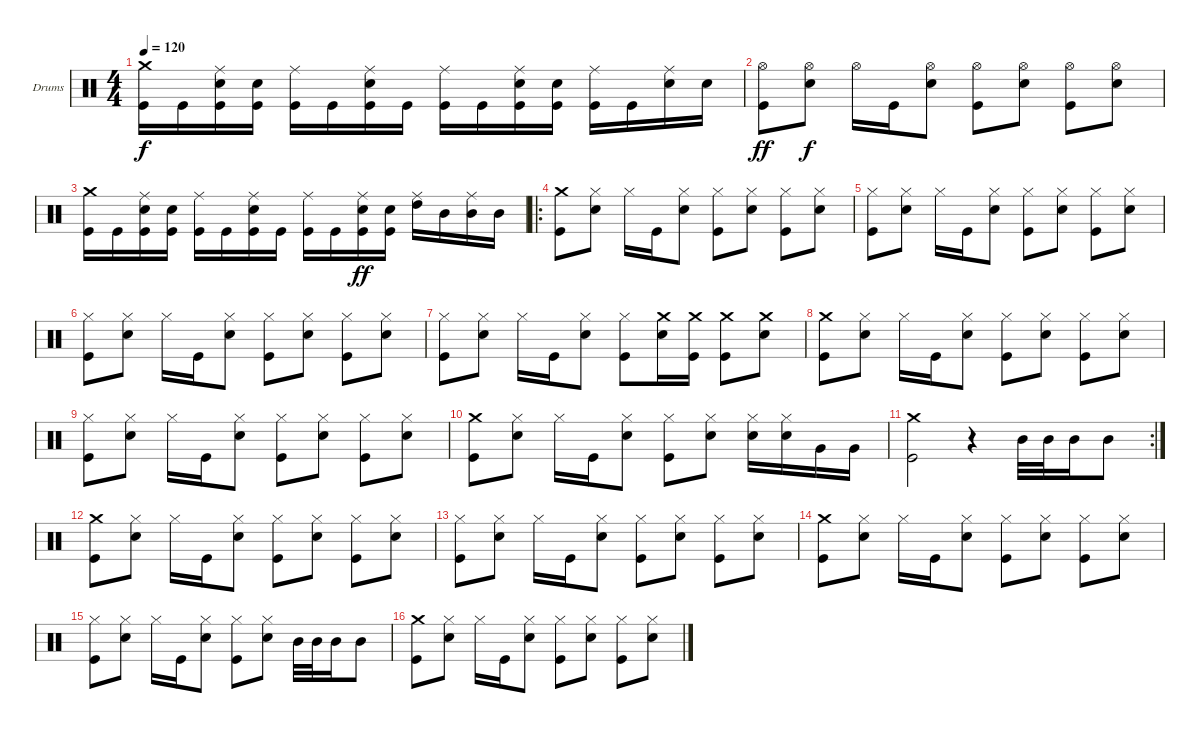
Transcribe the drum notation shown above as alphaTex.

\bracketExtendMode groupsimilarinstruments
\firstSystemTrackNameOrientation horizontal
\otherSystemsTrackNameOrientation horizontal
\track ("Drumkit" "Drums") {instrument percussion}
\staff {score}
\articulation defaults
\ts (4 4)
\tempo 120
\clef neutral
\ks c
("Crash medium (hit)" "Kick (hit)").16{dy f} "Kick (hit)".16 ("Ride (middle)" "Kick (hit)" "Snare (hit) 2").16 ("Kick (hit)" "Snare (hit) 2").16 ("Ride (middle)" "Kick (hit)").16 "Kick (hit)".16 ("Snare (hit) 2" "Ride (middle)" "Kick (hit)").16 "Kick (hit)".16 ("Ride (middle)" "Kick (hit)").16 "Kick (hit)".16 ("Snare (hit) 2" "Ride (middle)" "Kick (hit)").16 ("Kick (hit)" "Snare (hit) 2").16 ("Ride (middle)" "Kick (hit)").16 "Kick (hit)".16 ("Snare (hit) 2" "Ride (middle)").16 "Snare (hit) 2".16 |
("Kick (hit)" "Hi-Hat (open)").8{dy ff} ("Snare (hit) 2" "Hi-Hat (open)").8{dy f} "Hi-Hat (open)".16 "Kick (hit)".16 ("Snare (hit) 2" "Hi-Hat (open)").8 ("Kick (hit)" "Hi-Hat (open)").8 ("Snare (hit) 2" "Hi-Hat (open)").8 ("Kick (hit)" "Hi-Hat (open)").8 ("Snare (hit) 2" "Hi-Hat (open)").8 |
("Crash medium (hit)" "Kick (hit)").16 "Kick (hit)".16 ("Ride (middle)" "Kick (hit)" "Snare (hit) 2").16 ("Kick (hit)" "Snare (hit) 2").16 ("Ride (middle)" "Kick (hit)").16 "Kick (hit)".16 ("Snare (hit) 2" "Ride (middle)" "Kick (hit)").16 "Kick (hit)".16 ("Ride (middle)" "Kick (hit)").16 "Kick (hit)".16 ("Snare (hit) 2" "Ride (middle)" "Kick (hit)").16{dy ff} ("Kick (hit)" "Snare (hit) 2").16 ("Ride (middle)" "High Tom (hit)").16 "Mid Tom (hit)".16 ("Ride (middle)" "Mid Tom (hit)").16 "Mid Tom (hit)".16 |
\ro
("Kick (hit)" "Crash medium (hit)").8 ("Snare (hit) 2" "Hi-Hat (closed)").8 "Hi-Hat (closed)".16 "Kick (hit)".16 ("Snare (hit) 2" "Hi-Hat (closed)").8 ("Kick (hit)" "Hi-Hat (closed)").8 ("Snare (hit) 2" "Hi-Hat (closed)").8 ("Kick (hit)" "Hi-Hat (closed)").8 ("Snare (hit) 2" "Hi-Hat (closed)").8 |
("Kick (hit)" "Hi-Hat (closed)").8 ("Snare (hit) 2" "Hi-Hat (closed)").8 "Hi-Hat (closed)".16 "Kick (hit)".16 ("Snare (hit) 2" "Hi-Hat (closed)").8 ("Kick (hit)" "Hi-Hat (closed)").8 ("Snare (hit) 2" "Hi-Hat (closed)").8 ("Kick (hit)" "Hi-Hat (closed)").8 ("Snare (hit) 2" "Hi-Hat (closed)").8 |
("Kick (hit)" "Hi-Hat (closed)").8 ("Snare (hit) 2" "Hi-Hat (closed)").8 "Hi-Hat (closed)".16 "Kick (hit)".16 ("Snare (hit) 2" "Hi-Hat (closed)").8 ("Kick (hit)" "Hi-Hat (closed)").8 ("Snare (hit) 2" "Hi-Hat (closed)").8 ("Kick (hit)" "Hi-Hat (closed)").8 ("Snare (hit) 2" "Hi-Hat (closed)").8 |
("Kick (hit)" "Hi-Hat (closed)").8 ("Snare (hit) 2" "Hi-Hat (closed)").8 "Hi-Hat (closed)".16 "Kick (hit)".16 ("Snare (hit) 2" "Hi-Hat (closed)").8 ("Kick (hit)" "Hi-Hat (closed)").8 ("Snare (hit) 2" "Crash medium (hit)").16 ("Kick (hit)" "Crash medium (hit)").16 ("Kick (hit)" "Crash medium (hit)").8 ("Snare (hit) 2" "Crash medium (hit)").8 |
("Kick (hit)" "Crash medium (hit)").8 ("Snare (hit) 2" "Hi-Hat (closed)").8 "Hi-Hat (closed)".16 "Kick (hit)".16 ("Snare (hit) 2" "Hi-Hat (closed)").8 ("Kick (hit)" "Hi-Hat (closed)").8 ("Snare (hit) 2" "Hi-Hat (closed)").8 ("Kick (hit)" "Hi-Hat (closed)").8 ("Snare (hit) 2" "Hi-Hat (closed)").8 |
("Kick (hit)" "Hi-Hat (closed)").8 ("Snare (hit) 2" "Hi-Hat (closed)").8 "Hi-Hat (closed)".16 "Kick (hit)".16 ("Snare (hit) 2" "Hi-Hat (closed)").8 ("Kick (hit)" "Hi-Hat (closed)").8 ("Snare (hit) 2" "Hi-Hat (closed)").8 ("Kick (hit)" "Hi-Hat (closed)").8 ("Snare (hit) 2" "Hi-Hat (closed)").8 |
("Kick (hit)" "Crash medium (hit)").8 ("Snare (hit) 2" "Hi-Hat (closed)").8 "Hi-Hat (closed)".16 "Kick (hit)".16 ("Snare (hit) 2" "Hi-Hat (closed)").8 ("Kick (hit)" "Hi-Hat (closed)").8 ("Snare (hit) 2" "Hi-Hat (closed)").8 ("Snare (hit) 2" "Hi-Hat (closed)").16 ("Snare (hit) 2" "Hi-Hat (closed)").16 "Very Low Tom (hit)".16 "Very Low Tom (hit)".16 |
\rc 2
("Kick (hit)" "Crash medium (hit)").2 r.4 "Mid Tom (hit)".32 "Mid Tom (hit)".32 "Mid Tom (hit)".16 "Mid Tom (hit)".8 |
("Kick (hit)" "Crash medium (hit)").8 ("Snare (hit) 2" "Hi-Hat (closed)").8 "Hi-Hat (closed)".16 "Kick (hit)".16 ("Snare (hit) 2" "Hi-Hat (closed)").8 ("Kick (hit)" "Hi-Hat (closed)").8 ("Snare (hit) 2" "Hi-Hat (closed)").8 ("Kick (hit)" "Hi-Hat (closed)").8 ("Snare (hit) 2" "Hi-Hat (closed)").8 |
("Kick (hit)" "Hi-Hat (closed)").8 ("Snare (hit) 2" "Hi-Hat (closed)").8 "Hi-Hat (closed)".16 "Kick (hit)".16 ("Snare (hit) 2" "Hi-Hat (closed)").8 ("Kick (hit)" "Hi-Hat (closed)").8 ("Snare (hit) 2" "Hi-Hat (closed)").8 ("Kick (hit)" "Hi-Hat (closed)").8 ("Snare (hit) 2" "Hi-Hat (closed)").8 |
("Kick (hit)" "Crash medium (hit)").8 ("Snare (hit) 2" "Hi-Hat (closed)").8 "Hi-Hat (closed)".16 "Kick (hit)".16 ("Snare (hit) 2" "Hi-Hat (closed)").8 ("Kick (hit)" "Hi-Hat (closed)").8 ("Snare (hit) 2" "Hi-Hat (closed)").8 ("Kick (hit)" "Hi-Hat (closed)").8 ("Snare (hit) 2" "Hi-Hat (closed)").8 |
("Kick (hit)" "Hi-Hat (closed)").8 ("Snare (hit) 2" "Hi-Hat (closed)").8 "Hi-Hat (closed)".16 "Kick (hit)".16 ("Snare (hit) 2" "Hi-Hat (closed)").8 ("Kick (hit)" "Hi-Hat (closed)").8 ("Snare (hit) 2" "Hi-Hat (closed)").8 "Mid Tom (hit)".32 "Mid Tom (hit)".32 "Mid Tom (hit)".16 "Mid Tom (hit)".8 |
("Kick (hit)" "Crash medium (hit)").8 ("Snare (hit) 2" "Hi-Hat (closed)").8 "Hi-Hat (closed)".16 "Kick (hit)".16 ("Snare (hit) 2" "Hi-Hat (closed)").8 ("Kick (hit)" "Hi-Hat (closed)").8 ("Snare (hit) 2" "Hi-Hat (closed)").8 ("Kick (hit)" "Hi-Hat (closed)").8 ("Snare (hit) 2" "Hi-Hat (closed)").8
